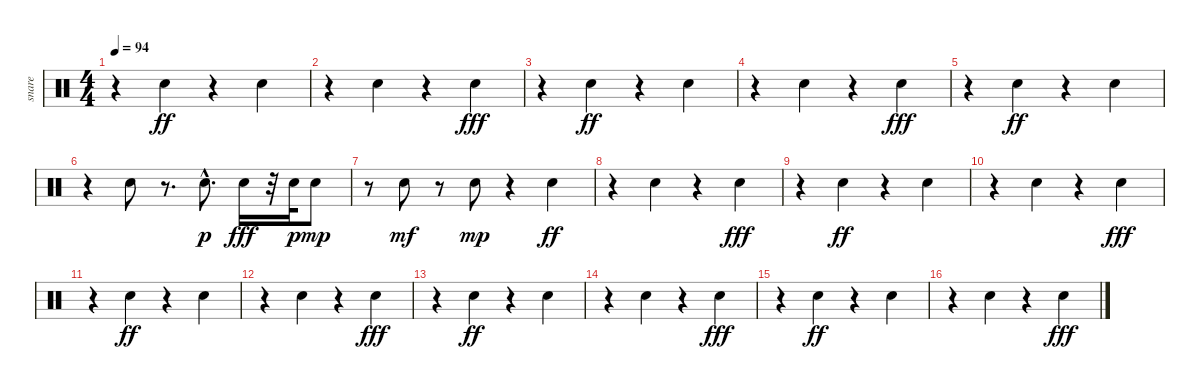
\track ("snare" "snare") {instrument percussion}
\staff {score}
\articulation defaults
\ts (4 4)
\tempo 94
\clef neutral
\ks c
r.4{dy fff} "Electric Snare (hit)".4{dy ff} r.4 "Electric Snare (hit)".4 |
r.4 "Electric Snare (hit)".4 r.4 "Electric Snare (hit)".4{dy fff} |
r.4 "Electric Snare (hit)".4{dy ff} r.4 "Electric Snare (hit)".4 |
r.4 "Electric Snare (hit)".4 r.4 "Electric Snare (hit)".4{dy fff} |
r.4 "Electric Snare (hit)".4{dy ff} r.4 "Electric Snare (hit)".4 |
r.4 "Electric Snare (hit)".8 r.8{d} "Electric Snare (hit)"{hac}.8{d dy p} "Electric Snare (hit)".16{dy fff} r.32 "Electric Snare (hit)".32{dy p} "Electric Snare (hit)".8{dy mp} |
r.8 "Electric Snare (hit)".8{dy mf} r.8 "Electric Snare (hit)".8{dy mp} r.4 "Electric Snare (hit)".4{dy ff} |
r.4 "Electric Snare (hit)".4 r.4 "Electric Snare (hit)".4{dy fff} |
r.4 "Electric Snare (hit)".4{dy ff} r.4 "Electric Snare (hit)".4 |
r.4 "Electric Snare (hit)".4 r.4 "Electric Snare (hit)".4{dy fff} |
r.4 "Electric Snare (hit)".4{dy ff} r.4 "Electric Snare (hit)".4 |
r.4 "Electric Snare (hit)".4 r.4 "Electric Snare (hit)".4{dy fff} |
r.4 "Electric Snare (hit)".4{dy ff} r.4 "Electric Snare (hit)".4 |
r.4 "Electric Snare (hit)".4 r.4 "Electric Snare (hit)".4{dy fff} |
r.4 "Electric Snare (hit)".4{dy ff} r.4 "Electric Snare (hit)".4 |
r.4 "Electric Snare (hit)".4 r.4 "Electric Snare (hit)".4{dy fff}
